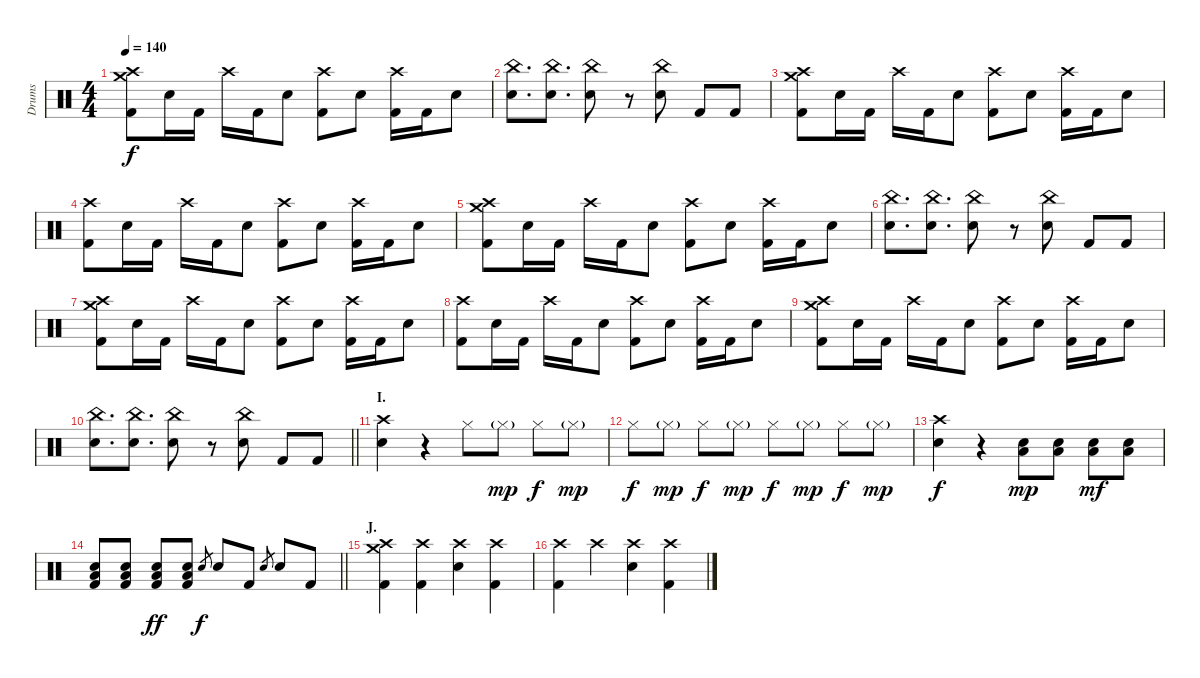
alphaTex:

\track ("Drums" "Drums") {instrument percussion}
\staff {score}
\articulation defaults
\ts (4 4)
\tempo 140
\clef neutral
\ks c
("Crash medium (hit)" "Crash high (hit)" "Kick (hit) 2").8{dy f} "Electric Snare (hit)".16 "Kick (hit) 2".16 "Crash high (hit)".16 "Kick (hit) 2".16 "Electric Snare (hit)".8 ("Crash high (hit)" "Kick (hit) 2").8 "Electric Snare (hit)".8 ("Crash high (hit)" "Kick (hit) 2").16 "Kick (hit) 2".16 "Electric Snare (hit)".8 |
("China (hit)" "Electric Snare (hit)").8{d} ("China (hit)" "Electric Snare (hit)").8{d} ("China (hit)" "Electric Snare (hit)").8 r.8 ("China (hit)" "Electric Snare (hit)").8 "Kick (hit) 2".8 "Kick (hit) 2".8 |
("Crash medium (hit)" "Crash high (hit)" "Kick (hit) 2").8 "Electric Snare (hit)".16 "Kick (hit) 2".16 "Crash high (hit)".16 "Kick (hit) 2".16 "Electric Snare (hit)".8 ("Crash high (hit)" "Kick (hit) 2").8 "Electric Snare (hit)".8 ("Crash high (hit)" "Kick (hit) 2").16 "Kick (hit) 2".16 "Electric Snare (hit)".8 |
("Crash high (hit)" "Kick (hit) 2").8 "Electric Snare (hit)".16 "Kick (hit) 2".16 "Crash high (hit)".16 "Kick (hit) 2".16 "Electric Snare (hit)".8 ("Crash high (hit)" "Kick (hit) 2").8 "Electric Snare (hit)".8 ("Crash high (hit)" "Kick (hit) 2").16 "Kick (hit) 2".16 "Electric Snare (hit)".8 |
("Crash medium (hit)" "Crash high (hit)" "Kick (hit) 2").8 "Electric Snare (hit)".16 "Kick (hit) 2".16 "Crash high (hit)".16 "Kick (hit) 2".16 "Electric Snare (hit)".8 ("Crash high (hit)" "Kick (hit) 2").8 "Electric Snare (hit)".8 ("Crash high (hit)" "Kick (hit) 2").16 "Kick (hit) 2".16 "Electric Snare (hit)".8 |
("China (hit)" "Electric Snare (hit)").8{d} ("China (hit)" "Electric Snare (hit)").8{d} ("China (hit)" "Electric Snare (hit)").8 r.8 ("China (hit)" "Electric Snare (hit)").8 "Kick (hit) 2".8 "Kick (hit) 2".8 |
("Crash medium (hit)" "Crash high (hit)" "Kick (hit) 2").8 "Electric Snare (hit)".16 "Kick (hit) 2".16 "Crash high (hit)".16 "Kick (hit) 2".16 "Electric Snare (hit)".8 ("Crash high (hit)" "Kick (hit) 2").8 "Electric Snare (hit)".8 ("Crash high (hit)" "Kick (hit) 2").16 "Kick (hit) 2".16 "Electric Snare (hit)".8 |
("Crash high (hit)" "Kick (hit) 2").8 "Electric Snare (hit)".16 "Kick (hit) 2".16 "Crash high (hit)".16 "Kick (hit) 2".16 "Electric Snare (hit)".8 ("Crash high (hit)" "Kick (hit) 2").8 "Electric Snare (hit)".8 ("Crash high (hit)" "Kick (hit) 2").16 "Kick (hit) 2".16 "Electric Snare (hit)".8 |
("Crash medium (hit)" "Crash high (hit)" "Kick (hit) 2").8 "Electric Snare (hit)".16 "Kick (hit) 2".16 "Crash high (hit)".16 "Kick (hit) 2".16 "Electric Snare (hit)".8 ("Crash high (hit)" "Kick (hit) 2").8 "Electric Snare (hit)".8 ("Crash high (hit)" "Kick (hit) 2").16 "Kick (hit) 2".16 "Electric Snare (hit)".8 |
\barLineRight lightlight
("China (hit)" "Electric Snare (hit)").8{d} ("China (hit)" "Electric Snare (hit)").8{d} ("China (hit)" "Electric Snare (hit)").8 r.8 ("China (hit)" "Electric Snare (hit)").8 "Kick (hit) 2".8 "Kick (hit) 2".8 |
\section ("" "I.")
("Crash high (hit)" "Electric Snare (hit)").4 r.4 "Hi-Hat (closed)".8 "Hi-Hat (closed)"{g}.8{dy mp} "Hi-Hat (closed)".8{dy f} "Hi-Hat (closed)"{g}.8{dy mp} |
"Hi-Hat (closed)".8{dy f} "Hi-Hat (closed)"{g}.8{dy mp} "Hi-Hat (closed)".8{dy f} "Hi-Hat (closed)"{g}.8{dy mp} "Hi-Hat (closed)".8{dy f} "Hi-Hat (closed)"{g}.8{dy mp} "Hi-Hat (closed)".8{dy f} "Hi-Hat (closed)"{g}.8{dy mp} |
("Crash high (hit)" "Electric Snare (hit)").4{dy f} r.4 ("Electric Snare (hit)" "Low Floor Tom (hit)").8{dy mp} ("Electric Snare (hit)" "Low Floor Tom (hit)").8 ("Electric Snare (hit)" "Low Floor Tom (hit)").8{dy mf} ("Electric Snare (hit)" "Low Floor Tom (hit)").8 |
\barLineRight lightlight
("Electric Snare (hit)" "Low Floor Tom (hit)" "Kick (hit) 2").8 ("Electric Snare (hit)" "Low Floor Tom (hit)" "Kick (hit) 2").8 ("Electric Snare (hit)" "Low Floor Tom (hit)" "Kick (hit) 2").8{dy ff} ("Electric Snare (hit)" "Low Floor Tom (hit)" "Kick (hit) 2").8 "Electric Snare (hit)".8{gr dy f} "Electric Snare (hit)".8 "Kick (hit) 2".8 "Electric Snare (hit)".8{gr} "Electric Snare (hit)".8 "Kick (hit) 2".8 |
\section ("" "J.")
("Crash medium (hit)" "Crash high (hit)" "Kick (hit) 2").4 ("Crash high (hit)" "Kick (hit) 2").4 ("Crash high (hit)" "Electric Snare (hit)").4 ("Crash high (hit)" "Kick (hit) 2").4 |
("Crash high (hit)" "Kick (hit) 2").4 "Crash high (hit)".4 ("Crash high (hit)" "Electric Snare (hit)").4 ("Crash high (hit)" "Kick (hit) 2").4
